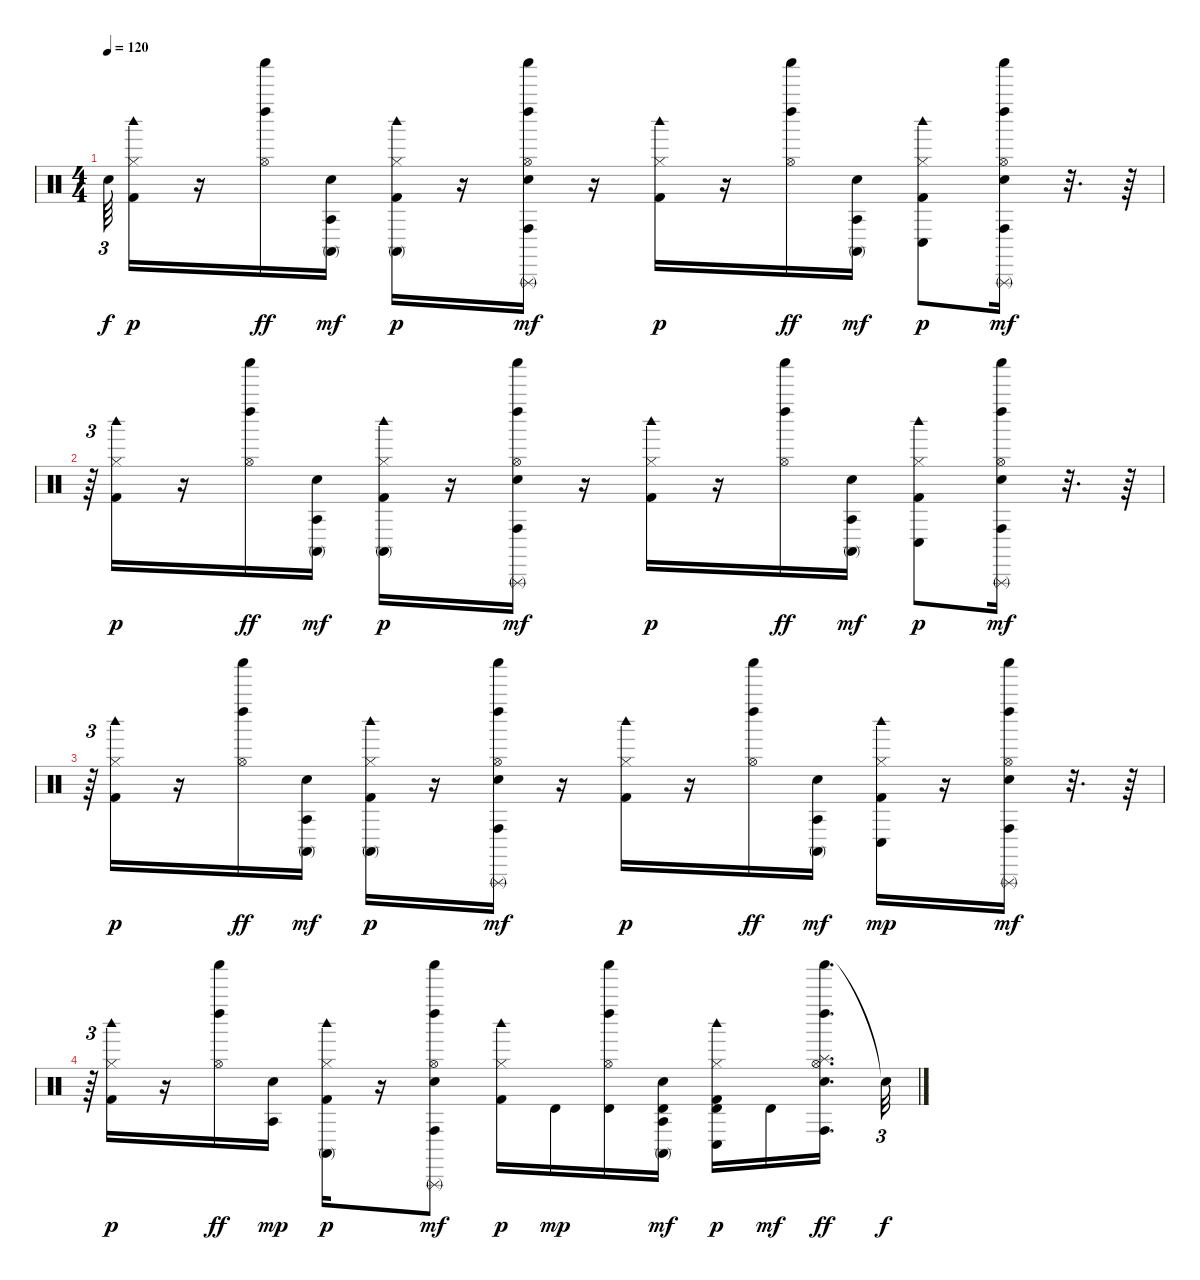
\track "" {instrument percussion}
\staff {score}
\articulation defaults
\ts (4 4)
\tempo 120
\clef neutral
\ks c "Snare (hit)"{t}.64{tu (3 2) dy f}
("Kick (hit) 2" "Hi-Hat (closed)" "Woodblock high (hit)").16{dy p} r.16 ("Shaker (hit)" "Left Maraca (hit)" "Hi-Hat (open)").16{dy ff} ("Electric Snare (hit)" "Conga high (mute)" "Agogo tow (hit)").16{dy mf} ("Kick (hit) 2" "Conga high (mute)" "Hi-Hat (closed)" "Woodblock high (hit)").16{dy p} r.16 ("Shaker (hit)" "Left Maraca (hit)" "Electric Snare (hit)" "Conga high (hit)" "Hi-Hat (open)" "Triangle (rnute)").16{dy mf} r.16 ("Kick (hit) 2" "Hi-Hat (closed)" "Woodblock high (hit)").16{dy p} r.16 ("Shaker (hit)" "Left Maraca (hit)" "Hi-Hat (open)").16{dy ff} ("Electric Snare (hit)" "Conga high (mute)" "Agogo tow (hit)").16{dy mf} ("Kick (hit) 2" "Conga low (hit)" "Hi-Hat (closed)" "Woodblock high (hit)").8{dy p} ("Shaker (hit)" "Left Maraca (hit)" "Electric Snare (hit)" "Conga high (hit)" "Hi-Hat (open)" "Triangle (rnute)").16{dy mf} r.32{d} r.64 |
r.64{tu (3 2)} ("Kick (hit) 2" "Hi-Hat (closed)" "Woodblock high (hit)").16{dy p} r.16 ("Shaker (hit)" "Left Maraca (hit)" "Hi-Hat (open)").16{dy ff} ("Electric Snare (hit)" "Conga high (mute)" "Agogo tow (hit)").16{dy mf} ("Kick (hit) 2" "Conga high (mute)" "Hi-Hat (closed)" "Woodblock high (hit)").16{dy p} r.16 ("Shaker (hit)" "Left Maraca (hit)" "Electric Snare (hit)" "Conga high (hit)" "Hi-Hat (open)" "Triangle (rnute)").16{dy mf} r.16 ("Kick (hit) 2" "Hi-Hat (closed)" "Woodblock high (hit)").16{dy p} r.16 ("Shaker (hit)" "Left Maraca (hit)" "Hi-Hat (open)").16{dy ff} ("Electric Snare (hit)" "Conga high (mute)" "Agogo tow (hit)").16{dy mf} ("Kick (hit) 2" "Conga low (hit)" "Hi-Hat (closed)" "Woodblock high (hit)").8{dy p} ("Shaker (hit)" "Left Maraca (hit)" "Electric Snare (hit)" "Conga high (hit)" "Hi-Hat (open)" "Triangle (rnute)").16{dy mf} r.32{d} r.64 |
r.64{tu (3 2)} ("Kick (hit) 2" "Hi-Hat (closed)" "Woodblock high (hit)").16{dy p} r.16 ("Shaker (hit)" "Left Maraca (hit)" "Hi-Hat (open)").16{dy ff} ("Electric Snare (hit)" "Conga high (mute)" "Agogo tow (hit)").16{dy mf} ("Kick (hit) 2" "Conga high (mute)" "Hi-Hat (closed)" "Woodblock high (hit)").16{dy p} r.16 ("Shaker (hit)" "Left Maraca (hit)" "Electric Snare (hit)" "Conga high (hit)" "Hi-Hat (open)" "Triangle (rnute)").16{dy mf} r.16 ("Kick (hit) 2" "Hi-Hat (closed)" "Woodblock high (hit)").16{dy p} r.16 ("Shaker (hit)" "Left Maraca (hit)" "Hi-Hat (open)").16{dy ff} ("Electric Snare (hit)" "Conga high (mute)" "Agogo tow (hit)").16{dy mf} ("Kick (hit) 2" "Conga low (hit)" "Hi-Hat (closed)" "Woodblock high (hit)").16{dy mp} r.16 ("Shaker (hit)" "Left Maraca (hit)" "Electric Snare (hit)" "Conga high (hit)" "Hi-Hat (open)" "Triangle (rnute)").16{dy mf} r.32{d} r.64 |
r.64{tu (3 2)} ("Kick (hit) 2" "Hi-Hat (closed)" "Woodblock high (hit)").16{dy p} r.16 ("Shaker (hit)" "Left Maraca (hit)" "Hi-Hat (open)").16{dy ff} ("Electric Snare (hit)" "Agogo tow (hit)").16{dy mp} ("Kick (hit) 2" "Conga high (mute)" "Hi-Hat (closed)" "Woodblock high (hit)").16{dy p} r.16 ("Shaker (hit)" "Left Maraca (hit)" "Electric Snare (hit)" "Conga high (hit)" "Hi-Hat (open)" "Triangle (rnute)").8{dy mf} ("Kick (hit) 2" "Hi-Hat (closed)" "Woodblock high (hit)").16{dy p} "Timbale high (hit)".16{dy mp} ("Shaker (hit)" "Left Maraca (hit)" "Hi-Hat (open)" "Timbale high (hit)").16 ("Electric Snare (hit)" "Conga high (mute)" "Timbale high (hit)" "Agogo tow (hit)").16{dy mf} ("Kick (hit) 2" "Conga low (hit)" "Hi-Hat (closed)" "Timbale high (hit)" "Woodblock high (hit)").16{dy p} "Timbale high (hit)".16{dy mf} ("Shaker (hit)" "Left Maraca (hit)" "Electric Snare (hit)" "Conga high (hit)" "Hi-Hat (open)" "Splash (hit)").16{d dy ff beam splitsecondary} "Snare (hit)"{t}.32{tu (3 2) dy f}
